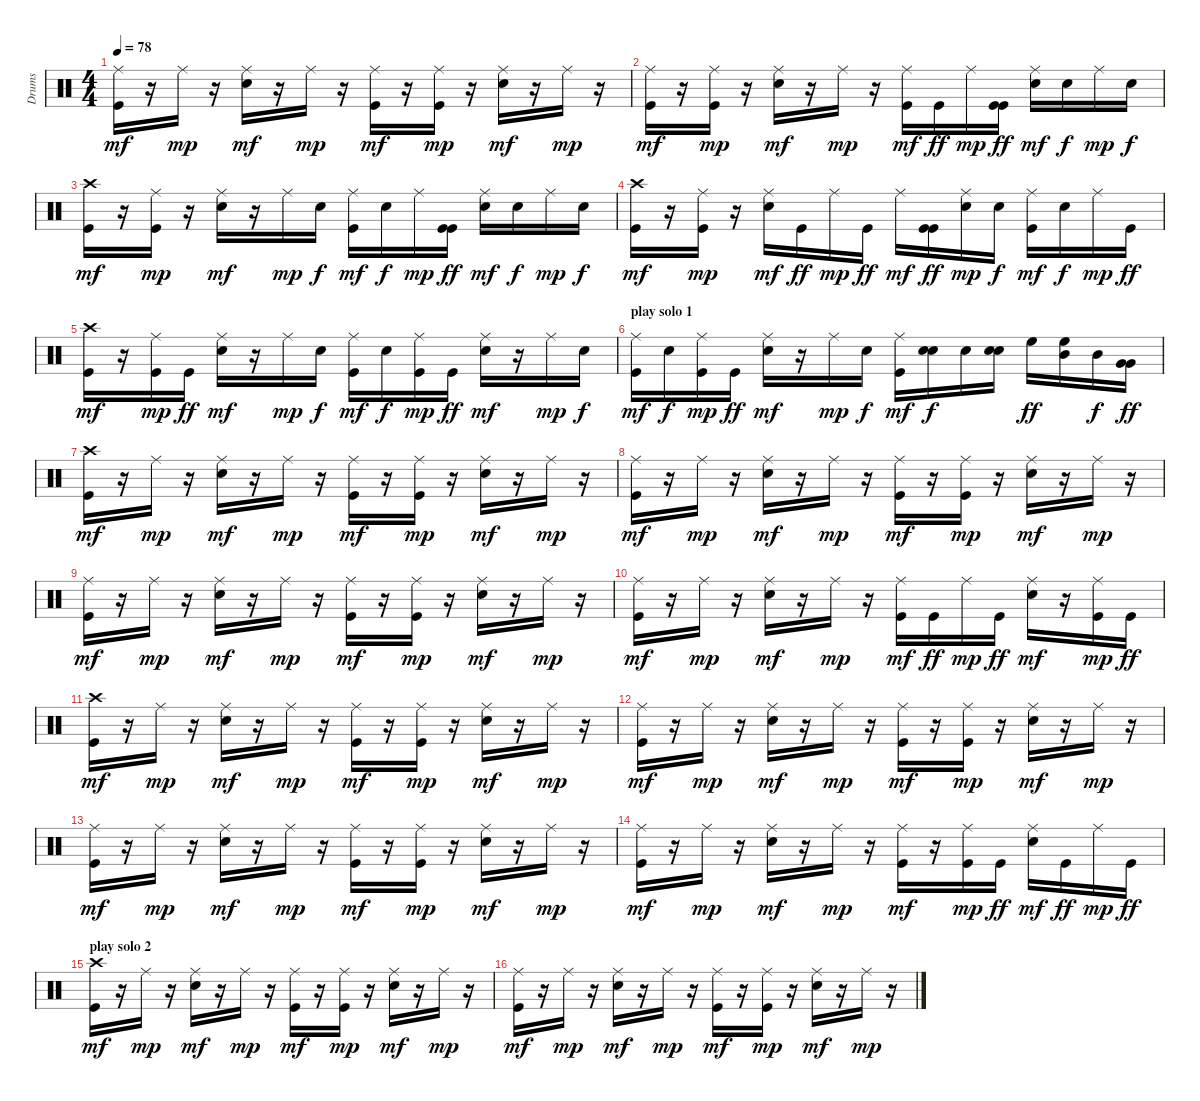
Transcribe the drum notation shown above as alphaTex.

\track ("Drums" "Drums") {instrument percussion}
\staff {score}
\articulation defaults
\ts (4 4)
\tempo 78
\clef neutral
\ks c
("Kick (hit)" "Ride (middle)").16{dy mf} r.16 "Ride (middle)".16{dy mp} r.16 ("Snare (hit) 2" "Ride (middle)").16{dy mf} r.16 "Ride (middle)".16{dy mp} r.16 ("Kick (hit)" "Ride (middle)").16{dy mf} r.16 ("Kick (hit)" "Ride (middle)").16{dy mp} r.16 ("Snare (hit) 2" "Ride (middle)").16{dy mf} r.16 "Ride (middle)".16{dy mp} r.16 |
("Kick (hit)" "Ride (middle)").16{dy mf} r.16 ("Kick (hit)" "Ride (middle)").16{dy mp} r.16 ("Snare (hit) 2" "Ride (middle)").16{dy mf} r.16 "Ride (middle)".16{dy mp} r.16 ("Kick (hit)" "Ride (middle)").16{dy mf} "Kick (hit)".16{dy ff} "Ride (middle)".16{dy mp} ("Kick (hit)" "Kick (hit)").16{dy ff} ("Snare (hit) 2" "Ride (middle)").16{dy mf} "Snare (hit) 2".16{dy f} "Ride (middle)".16{dy mp} "Snare (hit) 2".16{dy f} |
("Kick (hit)" "Crash high (hit)").16{dy mf} r.16 ("Kick (hit)" "Ride (middle)").16{dy mp} r.16 ("Snare (hit) 2" "Ride (middle)").16{dy mf} r.16 "Ride (middle)".16{dy mp} "Snare (hit) 2".16{dy f} ("Kick (hit)" "Ride (middle)").16{dy mf} "Snare (hit) 2".16{dy f} "Ride (middle)".16{dy mp} ("Kick (hit)" "Kick (hit)").16{dy ff} ("Snare (hit) 2" "Ride (middle)").16{dy mf} "Snare (hit) 2".16{dy f} "Ride (middle)".16{dy mp} "Snare (hit) 2".16{dy f} |
("Kick (hit)" "Crash high (hit)").16{dy mf} r.16 ("Kick (hit)" "Ride (middle)").16{dy mp} r.16 ("Snare (hit) 2" "Ride (middle)").16{dy mf} "Kick (hit)".16{dy ff} "Ride (middle)".16{dy mp} "Kick (hit)".16{dy ff} "Ride (middle)".16{dy mf} ("Kick (hit)" "Kick (hit)").16{dy ff} ("Snare (hit) 2" "Ride (middle)").16{dy mp} "Snare (hit) 2".16{dy f} ("Kick (hit)" "Ride (middle)").16{dy mf} "Snare (hit) 2".16{dy f} "Ride (middle)".16{dy mp} "Kick (hit)".16{dy ff} |
("Kick (hit)" "Crash high (hit)").16{dy mf} r.16 ("Kick (hit)" "Ride (middle)").16{dy mp} "Kick (hit)".16{dy ff} ("Snare (hit) 2" "Ride (middle)").16{dy mf} r.16 "Ride (middle)".16{dy mp} "Snare (hit) 2".16{dy f} ("Kick (hit)" "Ride (middle)").16{dy mf} "Snare (hit) 2".16{dy f} ("Kick (hit)" "Ride (middle)").16{dy mp} "Kick (hit)".16{dy ff} ("Snare (hit) 2" "Ride (middle)").16{dy mf} r.16 "Ride (middle)".16{dy mp} "Snare (hit) 2".16{dy f} |
\section ("" "play solo 1")
("Kick (hit)" "Ride (middle)").16{dy mf} "Snare (hit) 2".16{dy f} ("Kick (hit)" "Ride (middle)").16{dy mp} "Kick (hit)".16{dy ff} ("Snare (hit) 2" "Ride (middle)").16{dy mf} r.16 "Ride (middle)".16{dy mp} "Snare (hit) 2".16{dy f} ("Kick (hit)" "Ride (middle)").16{dy mf} ("Snare (hit) 2" "Snare (hit) 2").16{dy f} "Snare (hit) 2".16 ("Snare (hit) 2" "Snare (hit) 2").16 "High Floor Tom (hit)".16{dy ff} ("High Floor Tom (hit)" "Mid Tom (hit)").16 "Mid Tom (hit)".16{dy f} ("Very Low Tom (hit)" "Very Low Tom (hit)").16{dy ff} |
("Kick (hit)" "Crash high (hit)").16{dy mf} r.16 "Ride (middle)".16{dy mp} r.16 ("Snare (hit) 2" "Ride (middle)").16{dy mf} r.16 "Ride (middle)".16{dy mp} r.16 ("Kick (hit)" "Ride (middle)").16{dy mf} r.16 ("Kick (hit)" "Ride (middle)").16{dy mp} r.16 ("Snare (hit) 2" "Ride (middle)").16{dy mf} r.16 "Ride (middle)".16{dy mp} r.16 |
("Kick (hit)" "Ride (middle)").16{dy mf} r.16 "Ride (middle)".16{dy mp} r.16 ("Snare (hit) 2" "Ride (middle)").16{dy mf} r.16 "Ride (middle)".16{dy mp} r.16 ("Kick (hit)" "Ride (middle)").16{dy mf} r.16 ("Kick (hit)" "Ride (middle)").16{dy mp} r.16 ("Snare (hit) 2" "Ride (middle)").16{dy mf} r.16 "Ride (middle)".16{dy mp} r.16 |
("Kick (hit)" "Ride (middle)").16{dy mf} r.16 "Ride (middle)".16{dy mp} r.16 ("Snare (hit) 2" "Ride (middle)").16{dy mf} r.16 "Ride (middle)".16{dy mp} r.16 ("Kick (hit)" "Ride (middle)").16{dy mf} r.16 ("Kick (hit)" "Ride (middle)").16{dy mp} r.16 ("Snare (hit) 2" "Ride (middle)").16{dy mf} r.16 "Ride (middle)".16{dy mp} r.16 |
("Kick (hit)" "Ride (middle)").16{dy mf} r.16 "Ride (middle)".16{dy mp} r.16 ("Snare (hit) 2" "Ride (middle)").16{dy mf} r.16 "Ride (middle)".16{dy mp} r.16 ("Kick (hit)" "Ride (middle)").16{dy mf} "Kick (hit)".16{dy ff} "Ride (middle)".16{dy mp} "Kick (hit)".16{dy ff} ("Snare (hit) 2" "Ride (middle)").16{dy mf} r.16 ("Kick (hit)" "Ride (middle)").16{dy mp} "Kick (hit)".16{dy ff} |
("Kick (hit)" "Crash high (hit)").16{dy mf} r.16 "Ride (middle)".16{dy mp} r.16 ("Snare (hit) 2" "Ride (middle)").16{dy mf} r.16 "Ride (middle)".16{dy mp} r.16 ("Kick (hit)" "Ride (middle)").16{dy mf} r.16 ("Kick (hit)" "Ride (middle)").16{dy mp} r.16 ("Snare (hit) 2" "Ride (middle)").16{dy mf} r.16 "Ride (middle)".16{dy mp} r.16 |
("Kick (hit)" "Ride (middle)").16{dy mf} r.16 "Ride (middle)".16{dy mp} r.16 ("Snare (hit) 2" "Ride (middle)").16{dy mf} r.16 "Ride (middle)".16{dy mp} r.16 ("Kick (hit)" "Ride (middle)").16{dy mf} r.16 ("Kick (hit)" "Ride (middle)").16{dy mp} r.16 ("Snare (hit) 2" "Ride (middle)").16{dy mf} r.16 "Ride (middle)".16{dy mp} r.16 |
("Kick (hit)" "Ride (middle)").16{dy mf} r.16 "Ride (middle)".16{dy mp} r.16 ("Snare (hit) 2" "Ride (middle)").16{dy mf} r.16 "Ride (middle)".16{dy mp} r.16 ("Kick (hit)" "Ride (middle)").16{dy mf} r.16 ("Kick (hit)" "Ride (middle)").16{dy mp} r.16 ("Snare (hit) 2" "Ride (middle)").16{dy mf} r.16 "Ride (middle)".16{dy mp} r.16 |
("Kick (hit)" "Ride (middle)").16{dy mf} r.16 "Ride (middle)".16{dy mp} r.16 ("Snare (hit) 2" "Ride (middle)").16{dy mf} r.16 "Ride (middle)".16{dy mp} r.16 ("Kick (hit)" "Ride (middle)").16{dy mf} r.16 ("Kick (hit)" "Ride (middle)").16{dy mp} "Kick (hit)".16{dy ff} ("Snare (hit) 2" "Ride (middle)").16{dy mf} "Kick (hit)".16{dy ff} "Ride (middle)".16{dy mp} "Kick (hit)".16{dy ff} |
\section ("" "play solo 2")
("Kick (hit)" "Crash high (hit)").16{dy mf} r.16 "Ride (middle)".16{dy mp} r.16 ("Snare (hit) 2" "Ride (middle)").16{dy mf} r.16 "Ride (middle)".16{dy mp} r.16 ("Kick (hit)" "Ride (middle)").16{dy mf} r.16 ("Kick (hit)" "Ride (middle)").16{dy mp} r.16 ("Snare (hit) 2" "Ride (middle)").16{dy mf} r.16 "Ride (middle)".16{dy mp} r.16 |
("Kick (hit)" "Ride (middle)").16{dy mf} r.16 "Ride (middle)".16{dy mp} r.16 ("Snare (hit) 2" "Ride (middle)").16{dy mf} r.16 "Ride (middle)".16{dy mp} r.16 ("Kick (hit)" "Ride (middle)").16{dy mf} r.16 ("Kick (hit)" "Ride (middle)").16{dy mp} r.16 ("Snare (hit) 2" "Ride (middle)").16{dy mf} r.16 "Ride (middle)".16{dy mp} r.16
